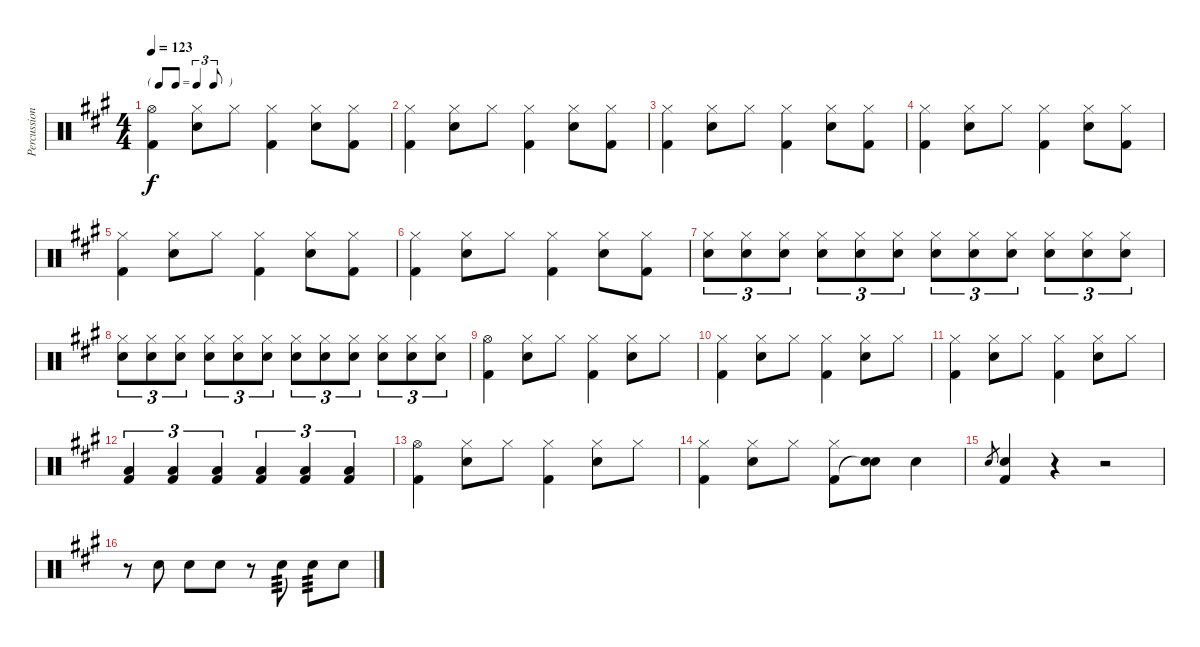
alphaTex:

\track ("Percussion" "Percussion") {instrument percussion}
\staff {score}
\articulation defaults
\ts (4 4)
\tf triplet8th
\tempo 123
\clef neutral
\ks a
("Hi-Hat (open)" "Kick (hit) 2").4{dy f} ("Hi-Hat (closed)" "Snare (hit) 2").8 "Hi-Hat (closed)".8 ("Hi-Hat (closed)" "Kick (hit) 2").4 ("Hi-Hat (closed)" "Snare (hit) 2").8 ("Hi-Hat (closed)" "Kick (hit) 2").8 |
("Hi-Hat (closed)" "Kick (hit) 2").4 ("Hi-Hat (closed)" "Snare (hit) 2").8 "Hi-Hat (closed)".8 ("Hi-Hat (closed)" "Kick (hit) 2").4 ("Hi-Hat (closed)" "Snare (hit) 2").8 ("Hi-Hat (closed)" "Kick (hit) 2").8 |
("Hi-Hat (closed)" "Kick (hit) 2").4 ("Hi-Hat (closed)" "Snare (hit) 2").8 "Hi-Hat (closed)".8 ("Hi-Hat (closed)" "Kick (hit) 2").4 ("Hi-Hat (closed)" "Snare (hit) 2").8 ("Hi-Hat (closed)" "Kick (hit) 2").8 |
("Hi-Hat (closed)" "Kick (hit) 2").4 ("Hi-Hat (closed)" "Snare (hit) 2").8 "Hi-Hat (closed)".8 ("Hi-Hat (closed)" "Kick (hit) 2").4 ("Hi-Hat (closed)" "Snare (hit) 2").8 ("Hi-Hat (closed)" "Kick (hit) 2").8 |
("Hi-Hat (closed)" "Kick (hit) 2").4 ("Hi-Hat (closed)" "Snare (hit) 2").8 "Hi-Hat (closed)".8 ("Hi-Hat (closed)" "Kick (hit) 2").4 ("Hi-Hat (closed)" "Snare (hit) 2").8 ("Hi-Hat (closed)" "Kick (hit) 2").8 |
("Hi-Hat (closed)" "Kick (hit) 2").4 ("Hi-Hat (closed)" "Snare (hit) 2").8 "Hi-Hat (closed)".8 ("Hi-Hat (closed)" "Kick (hit) 2").4 ("Hi-Hat (closed)" "Snare (hit) 2").8 ("Hi-Hat (closed)" "Kick (hit) 2").8 |
("Hi-Hat (closed)" "Snare (hit) 2").8{tu (3 2)} ("Hi-Hat (closed)" "Snare (hit) 2").8{tu (3 2)} ("Hi-Hat (closed)" "Snare (hit) 2").8{tu (3 2)} ("Hi-Hat (closed)" "Snare (hit) 2").8{tu (3 2)} ("Hi-Hat (closed)" "Snare (hit) 2").8{tu (3 2)} ("Hi-Hat (closed)" "Snare (hit) 2").8{tu (3 2)} ("Hi-Hat (closed)" "Snare (hit) 2").8{tu (3 2)} ("Hi-Hat (closed)" "Snare (hit) 2").8{tu (3 2)} ("Hi-Hat (closed)" "Snare (hit) 2").8{tu (3 2)} ("Hi-Hat (closed)" "Snare (hit) 2").8{tu (3 2)} ("Hi-Hat (closed)" "Snare (hit) 2").8{tu (3 2)} ("Hi-Hat (closed)" "Snare (hit) 2").8{tu (3 2)} |
("Hi-Hat (closed)" "Snare (hit) 2").8{tu (3 2)} ("Hi-Hat (closed)" "Snare (hit) 2").8{tu (3 2)} ("Hi-Hat (closed)" "Snare (hit) 2").8{tu (3 2)} ("Hi-Hat (closed)" "Snare (hit) 2").8{tu (3 2)} ("Hi-Hat (closed)" "Snare (hit) 2").8{tu (3 2)} ("Hi-Hat (closed)" "Snare (hit) 2").8{tu (3 2)} ("Hi-Hat (closed)" "Snare (hit) 2").8{tu (3 2)} ("Hi-Hat (closed)" "Snare (hit) 2").8{tu (3 2)} ("Hi-Hat (closed)" "Snare (hit) 2").8{tu (3 2)} ("Hi-Hat (closed)" "Snare (hit) 2").8{tu (3 2)} ("Hi-Hat (closed)" "Snare (hit) 2").8{tu (3 2)} ("Hi-Hat (closed)" "Snare (hit) 2").8{tu (3 2)} |
("Hi-Hat (open)" "Kick (hit) 2").4 ("Hi-Hat (closed)" "Snare (hit) 2").8 "Hi-Hat (closed)".8 ("Hi-Hat (closed)" "Kick (hit) 2").4 ("Hi-Hat (closed)" "Snare (hit) 2").8 "Hi-Hat (closed)".8 |
("Hi-Hat (closed)" "Kick (hit) 2").4 ("Hi-Hat (closed)" "Snare (hit) 2").8 "Hi-Hat (closed)".8 ("Hi-Hat (closed)" "Kick (hit) 2").4 ("Hi-Hat (closed)" "Snare (hit) 2").8 "Hi-Hat (closed)".8 |
("Hi-Hat (closed)" "Kick (hit) 2").4 ("Hi-Hat (closed)" "Snare (hit) 2").8 "Hi-Hat (closed)".8 ("Hi-Hat (closed)" "Kick (hit) 2").4 ("Hi-Hat (closed)" "Snare (hit) 2").8 "Hi-Hat (closed)".8 |
("Low Tom (hit)" "Kick (hit) 2").4{tu (3 2)} ("Low Tom (hit)" "Kick (hit) 2").4{tu (3 2)} ("Low Tom (hit)" "Kick (hit) 2").4{tu (3 2)} ("Low Tom (hit)" "Kick (hit) 2").4{tu (3 2)} ("Low Tom (hit)" "Kick (hit) 2").4{tu (3 2)} ("Low Tom (hit)" "Kick (hit) 2").4{tu (3 2)} |
("Hi-Hat (open)" "Kick (hit) 2").4 ("Hi-Hat (closed)" "Snare (hit) 2").8 "Hi-Hat (closed)".8 ("Hi-Hat (closed)" "Kick (hit) 2").4 ("Hi-Hat (closed)" "Snare (hit) 2").8 "Hi-Hat (closed)".8 |
("Hi-Hat (closed)" "Kick (hit) 2").4 ("Hi-Hat (closed)" "Snare (hit) 2").8 "Hi-Hat (closed)".8 ("Hi-Hat (closed)" "Kick (hit) 2").8 ("Snare (hit) 2" "Snare (hit)"{t}).8 "Snare (hit) 2".4 |
"Snare (hit) 2".8{gr} ("Snare (hit) 2" "Kick (hit) 2").4 r.4 r.2 |
r.8 "Snare (hit) 2".8 "Snare (hit) 2".8 "Snare (hit) 2".8 r.8 "Snare (hit) 2".8{tp 3} "Snare (hit) 2".8{tp 3} "Snare (hit) 2".8
